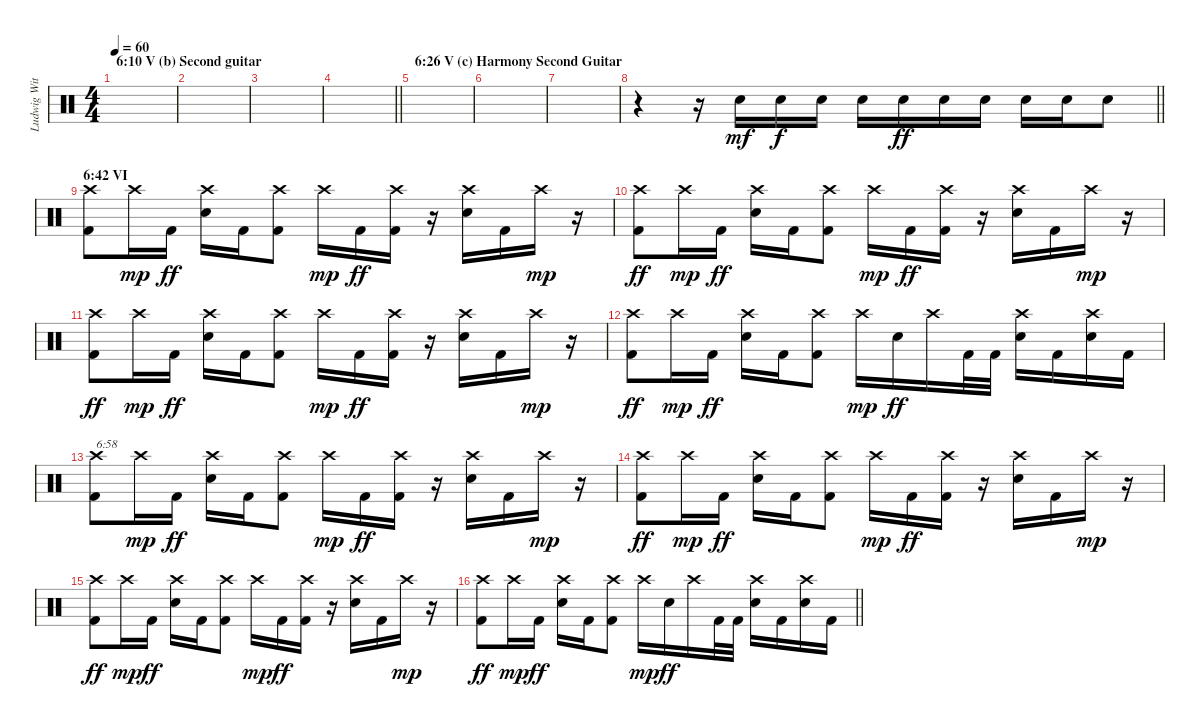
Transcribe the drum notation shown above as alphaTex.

\track ("Ludwig Witt (Drums)" "Ludwig Wit") {instrument percussion}
\staff
\articulation defaults
\ts (4 4)
\section ("" "6:10 V (b) Second guitar")
\tempo 60
\clef neutral
\ks c
|
|
|
\barLineRight lightlight
|
\section ("" "6:26 V (c) Harmony Second Guitar")
|
|
|
\barLineRight lightlight
r.4 r.16 "Electric Snare (hit)".16{dy mf} "Electric Snare (hit)".16{dy f} "Electric Snare (hit)".16 "Electric Snare (hit)".16 "Electric Snare (hit)".16{dy ff} "Electric Snare (hit)".16 "Electric Snare (hit)".16 "Electric Snare (hit)".16 "Electric Snare (hit)".16 "Electric Snare (hit)".8 |
\section ("" "6:42 VI")
("Crash high (hit)" "Kick (hit) 2").8 "Crash high (hit)".16{dy mp} "Kick (hit) 2".16{dy ff} ("Crash high (hit)" "Electric Snare (hit)").16 "Kick (hit) 2".16 ("Crash high (hit)" "Kick (hit) 2").8 "Crash high (hit)".16{dy mp} "Kick (hit) 2".16{dy ff} ("Crash high (hit)" "Kick (hit) 2").16 r.16 ("Crash high (hit)" "Electric Snare (hit)").16 "Kick (hit) 2".16 "Crash high (hit)".16{dy mp} r.16 |
("Crash high (hit)" "Kick (hit) 2").8{dy ff} "Crash high (hit)".16{dy mp} "Kick (hit) 2".16{dy ff} ("Crash high (hit)" "Electric Snare (hit)").16 "Kick (hit) 2".16 ("Crash high (hit)" "Kick (hit) 2").8 "Crash high (hit)".16{dy mp} "Kick (hit) 2".16{dy ff} ("Crash high (hit)" "Kick (hit) 2").16 r.16 ("Crash high (hit)" "Electric Snare (hit)").16 "Kick (hit) 2".16 "Crash high (hit)".16{dy mp} r.16 |
("Crash high (hit)" "Kick (hit) 2").8{dy ff} "Crash high (hit)".16{dy mp} "Kick (hit) 2".16{dy ff} ("Crash high (hit)" "Electric Snare (hit)").16 "Kick (hit) 2".16 ("Crash high (hit)" "Kick (hit) 2").8 "Crash high (hit)".16{dy mp} "Kick (hit) 2".16{dy ff} ("Crash high (hit)" "Kick (hit) 2").16 r.16 ("Crash high (hit)" "Electric Snare (hit)").16 "Kick (hit) 2".16 "Crash high (hit)".16{dy mp} r.16 |
("Crash high (hit)" "Kick (hit) 2").8{dy ff} "Crash high (hit)".16{dy mp} "Kick (hit) 2".16{dy ff} ("Crash high (hit)" "Electric Snare (hit)").16 "Kick (hit) 2".16 ("Crash high (hit)" "Kick (hit) 2").8 "Crash high (hit)".16{dy mp} "Electric Snare (hit)".16{dy ff} "Crash high (hit)".16 "Kick (hit) 2".32 "Kick (hit) 2".32 ("Crash high (hit)" "Electric Snare (hit)").16 "Kick (hit) 2".16 ("Crash high (hit)" "Electric Snare (hit)").16 "Kick (hit) 2".16 |
("Crash high (hit)" "Kick (hit) 2").8{txt "6:58"} "Crash high (hit)".16{dy mp} "Kick (hit) 2".16{dy ff} ("Crash high (hit)" "Electric Snare (hit)").16 "Kick (hit) 2".16 ("Crash high (hit)" "Kick (hit) 2").8 "Crash high (hit)".16{dy mp} "Kick (hit) 2".16{dy ff} ("Crash high (hit)" "Kick (hit) 2").16 r.16 ("Crash high (hit)" "Electric Snare (hit)").16 "Kick (hit) 2".16 "Crash high (hit)".16{dy mp} r.16 |
("Crash high (hit)" "Kick (hit) 2").8{dy ff} "Crash high (hit)".16{dy mp} "Kick (hit) 2".16{dy ff} ("Crash high (hit)" "Electric Snare (hit)").16 "Kick (hit) 2".16 ("Crash high (hit)" "Kick (hit) 2").8 "Crash high (hit)".16{dy mp} "Kick (hit) 2".16{dy ff} ("Crash high (hit)" "Kick (hit) 2").16 r.16 ("Crash high (hit)" "Electric Snare (hit)").16 "Kick (hit) 2".16 "Crash high (hit)".16{dy mp} r.16 |
("Crash high (hit)" "Kick (hit) 2").8{dy ff} "Crash high (hit)".16{dy mp} "Kick (hit) 2".16{dy ff} ("Crash high (hit)" "Electric Snare (hit)").16 "Kick (hit) 2".16 ("Crash high (hit)" "Kick (hit) 2").8 "Crash high (hit)".16{dy mp} "Kick (hit) 2".16{dy ff} ("Crash high (hit)" "Kick (hit) 2").16 r.16 ("Crash high (hit)" "Electric Snare (hit)").16 "Kick (hit) 2".16 "Crash high (hit)".16{dy mp} r.16 |
\barLineRight lightlight
("Crash high (hit)" "Kick (hit) 2").8{dy ff} "Crash high (hit)".16{dy mp} "Kick (hit) 2".16{dy ff} ("Crash high (hit)" "Electric Snare (hit)").16 "Kick (hit) 2".16 ("Crash high (hit)" "Kick (hit) 2").8 "Crash high (hit)".16{dy mp} "Electric Snare (hit)".16{dy ff} "Crash high (hit)".16 "Kick (hit) 2".32 "Kick (hit) 2".32 ("Crash high (hit)" "Electric Snare (hit)").16 "Kick (hit) 2".16 ("Crash high (hit)" "Electric Snare (hit)").16 "Kick (hit) 2".16
